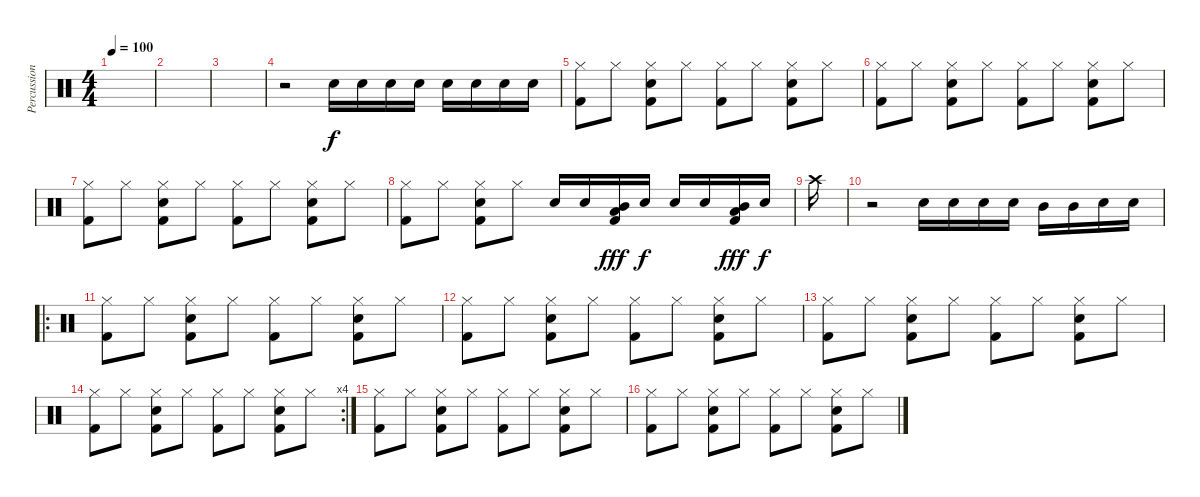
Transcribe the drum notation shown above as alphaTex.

\track ("Percussion" "Percussion") {instrument percussion}
\staff {score}
\articulation defaults
\ts (4 4)
\tempo 100
\clef neutral
\ks c
|
|
|
r.2 "Snare (hit) 2".16 "Snare (hit) 2".16 "Snare (hit) 2".16 "Snare (hit) 2".16 "Snare (hit) 2".16 "Snare (hit) 2".16 "Snare (hit) 2".16 "Snare (hit) 2".16 |
("Hi-Hat (closed)" "Kick (hit) 2").8 "Hi-Hat (closed)".8 ("Hi-Hat (closed)" "Snare (hit) 2" "Kick (hit) 2").8 "Hi-Hat (closed)".8 ("Hi-Hat (closed)" "Kick (hit) 2").8 "Hi-Hat (closed)".8 ("Hi-Hat (closed)" "Snare (hit) 2" "Kick (hit) 2").8 "Hi-Hat (closed)".8 |
("Hi-Hat (closed)" "Kick (hit) 2").8 "Hi-Hat (closed)".8 ("Hi-Hat (closed)" "Snare (hit) 2" "Kick (hit) 2").8 "Hi-Hat (closed)".8 ("Hi-Hat (closed)" "Kick (hit) 2").8 "Hi-Hat (closed)".8 ("Hi-Hat (closed)" "Snare (hit) 2" "Kick (hit) 2").8 "Hi-Hat (closed)".8 |
("Hi-Hat (closed)" "Kick (hit) 2").8 "Hi-Hat (closed)".8 ("Hi-Hat (closed)" "Snare (hit) 2" "Kick (hit) 2").8 "Hi-Hat (closed)".8 ("Hi-Hat (closed)" "Kick (hit) 2").8 "Hi-Hat (closed)".8 ("Hi-Hat (closed)" "Snare (hit) 2" "Kick (hit) 2").8 "Hi-Hat (closed)".8 |
("Hi-Hat (closed)" "Kick (hit) 2").8 "Hi-Hat (closed)".8 ("Hi-Hat (closed)" "Snare (hit) 2" "Kick (hit) 2").8 "Hi-Hat (closed)".8 "Snare (hit) 2".16 "Snare (hit) 2".16 ("Mid Tom (hit)" "Low Tom (hit)" "Kick (hit) 2").16{dy fff} "Snare (hit) 2".16{dy f} "Snare (hit) 2".16 "Snare (hit) 2".16 ("Low Tom (hit)" "Mid Tom (hit)" "Kick (hit) 2").16{dy fff} "Snare (hit) 2".16{dy f} |
"Crash high (hit)".16 |
r.2 "Snare (hit) 2".16 "Snare (hit) 2".16 "Snare (hit) 2".16 "Snare (hit) 2".16 "Mid Tom (hit)".16 "Mid Tom (hit)".16 "Snare (hit) 2".16 "Snare (hit) 2".16 |
\ro
("Hi-Hat (closed)" "Kick (hit) 2").8 "Hi-Hat (closed)".8 ("Hi-Hat (closed)" "Snare (hit) 2" "Kick (hit) 2").8 "Hi-Hat (closed)".8 ("Hi-Hat (closed)" "Kick (hit) 2").8 "Hi-Hat (closed)".8 ("Hi-Hat (closed)" "Snare (hit) 2" "Kick (hit) 2").8 "Hi-Hat (closed)".8 |
("Hi-Hat (closed)" "Kick (hit) 2").8 "Hi-Hat (closed)".8 ("Hi-Hat (closed)" "Snare (hit) 2" "Kick (hit) 2").8 "Hi-Hat (closed)".8 ("Hi-Hat (closed)" "Kick (hit) 2").8 "Hi-Hat (closed)".8 ("Hi-Hat (closed)" "Snare (hit) 2" "Kick (hit) 2").8 "Hi-Hat (closed)".8 |
("Hi-Hat (closed)" "Kick (hit) 2").8 "Hi-Hat (closed)".8 ("Hi-Hat (closed)" "Snare (hit) 2" "Kick (hit) 2").8 "Hi-Hat (closed)".8 ("Hi-Hat (closed)" "Kick (hit) 2").8 "Hi-Hat (closed)".8 ("Hi-Hat (closed)" "Snare (hit) 2" "Kick (hit) 2").8 "Hi-Hat (closed)".8 |
\rc 4
("Hi-Hat (closed)" "Kick (hit) 2").8 "Hi-Hat (closed)".8 ("Hi-Hat (closed)" "Snare (hit) 2" "Kick (hit) 2").8 "Hi-Hat (closed)".8 ("Hi-Hat (closed)" "Kick (hit) 2").8 "Hi-Hat (closed)".8 ("Hi-Hat (closed)" "Snare (hit) 2" "Kick (hit) 2").8 "Hi-Hat (closed)".8 |
("Hi-Hat (closed)" "Kick (hit) 2").8 "Hi-Hat (closed)".8 ("Hi-Hat (closed)" "Snare (hit) 2" "Kick (hit) 2").8 "Hi-Hat (closed)".8 ("Hi-Hat (closed)" "Kick (hit) 2").8 "Hi-Hat (closed)".8 ("Hi-Hat (closed)" "Snare (hit) 2" "Kick (hit) 2").8 "Hi-Hat (closed)".8 |
("Hi-Hat (closed)" "Kick (hit) 2").8 "Hi-Hat (closed)".8 ("Hi-Hat (closed)" "Snare (hit) 2" "Kick (hit) 2").8 "Hi-Hat (closed)".8 ("Hi-Hat (closed)" "Kick (hit) 2").8 "Hi-Hat (closed)".8 ("Hi-Hat (closed)" "Snare (hit) 2" "Kick (hit) 2").8 "Hi-Hat (closed)".8
